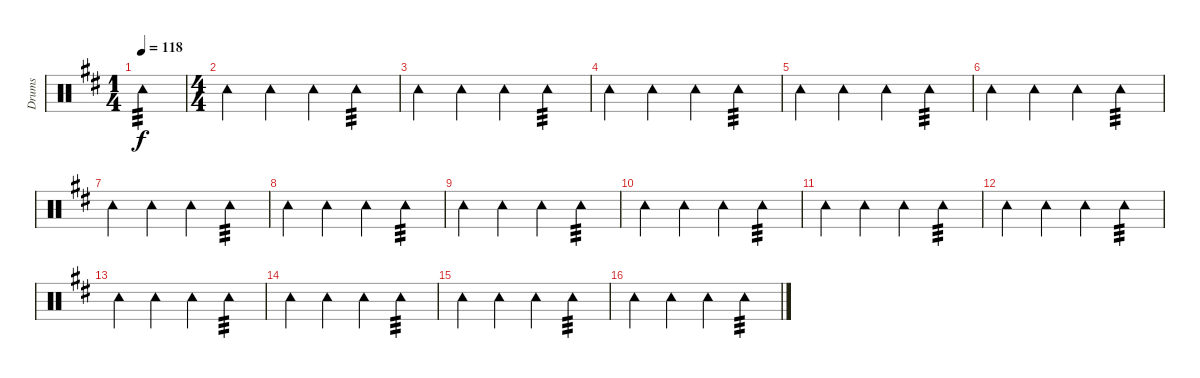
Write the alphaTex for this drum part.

\track ("Drums" "Drums") {instrument percussion}
\staff {score}
\articulation defaults
\ts (1 4)
\tempo 118
\clef neutral
\ks d "Tambourine (hit)".4{tp 3 dy f}
|
\ts (4 4)
"Tambourine (hit)".4 "Tambourine (hit)".4 "Tambourine (hit)".4 "Tambourine (hit)".4{tp 3} |
"Tambourine (hit)".4 "Tambourine (hit)".4 "Tambourine (hit)".4 "Tambourine (hit)".4{tp 3} |
"Tambourine (hit)".4 "Tambourine (hit)".4 "Tambourine (hit)".4 "Tambourine (hit)".4{tp 3} |
"Tambourine (hit)".4 "Tambourine (hit)".4 "Tambourine (hit)".4 "Tambourine (hit)".4{tp 3} |
"Tambourine (hit)".4 "Tambourine (hit)".4 "Tambourine (hit)".4 "Tambourine (hit)".4{tp 3} |
"Tambourine (hit)".4 "Tambourine (hit)".4 "Tambourine (hit)".4 "Tambourine (hit)".4{tp 3} |
"Tambourine (hit)".4 "Tambourine (hit)".4 "Tambourine (hit)".4 "Tambourine (hit)".4{tp 3} |
"Tambourine (hit)".4 "Tambourine (hit)".4 "Tambourine (hit)".4 "Tambourine (hit)".4{tp 3} |
"Tambourine (hit)".4 "Tambourine (hit)".4 "Tambourine (hit)".4 "Tambourine (hit)".4{tp 3} |
"Tambourine (hit)".4 "Tambourine (hit)".4 "Tambourine (hit)".4 "Tambourine (hit)".4{tp 3} |
"Tambourine (hit)".4 "Tambourine (hit)".4 "Tambourine (hit)".4 "Tambourine (hit)".4{tp 3} |
"Tambourine (hit)".4 "Tambourine (hit)".4 "Tambourine (hit)".4 "Tambourine (hit)".4{tp 3} |
"Tambourine (hit)".4 "Tambourine (hit)".4 "Tambourine (hit)".4 "Tambourine (hit)".4{tp 3} |
"Tambourine (hit)".4 "Tambourine (hit)".4 "Tambourine (hit)".4 "Tambourine (hit)".4{tp 3} |
"Tambourine (hit)".4 "Tambourine (hit)".4 "Tambourine (hit)".4 "Tambourine (hit)".4{tp 3}
